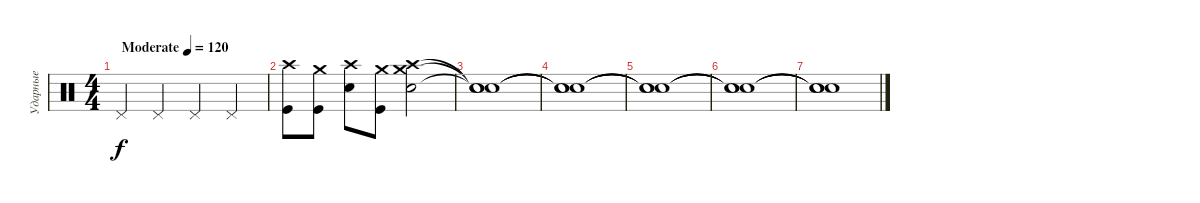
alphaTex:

\track ("Ударные" "Ударные") {instrument percussion}
\staff {score}
\articulation defaults
\ts (4 4)
\tempo (120 "Moderate")
\clef neutral
\ks c "Pedal Hi-Hat (hit)".4{dy f} "Pedal Hi-Hat (hit)".4 "Pedal Hi-Hat (hit)".4 "Pedal Hi-Hat (hit)".4
|
("Crash high (hit)" "Kick (hit)").8 ("Crash medium (hit)" "Kick (hit)").8 ("Crash high (hit)" "Snare (hit) 2").8 ("Crash medium (hit)" "Kick (hit)").8 ("Crash high (hit)" "Crash medium (hit)" "Snare (hit) 2").2 |
("Snare (hit)"{t} "Snare (hit)"{t} "Snare (hit)"{t}).1 |
("Snare (hit)"{t} "Snare (hit)"{t} "Snare (hit)"{t}).1 |
("Snare (hit)"{t} "Snare (hit)"{t} "Snare (hit)"{t}).1 |
("Snare (hit)"{t} "Snare (hit)"{t} "Snare (hit)"{t}).1 |
("Snare (hit)"{t} "Snare (hit)"{t} "Snare (hit)"{t}).1
